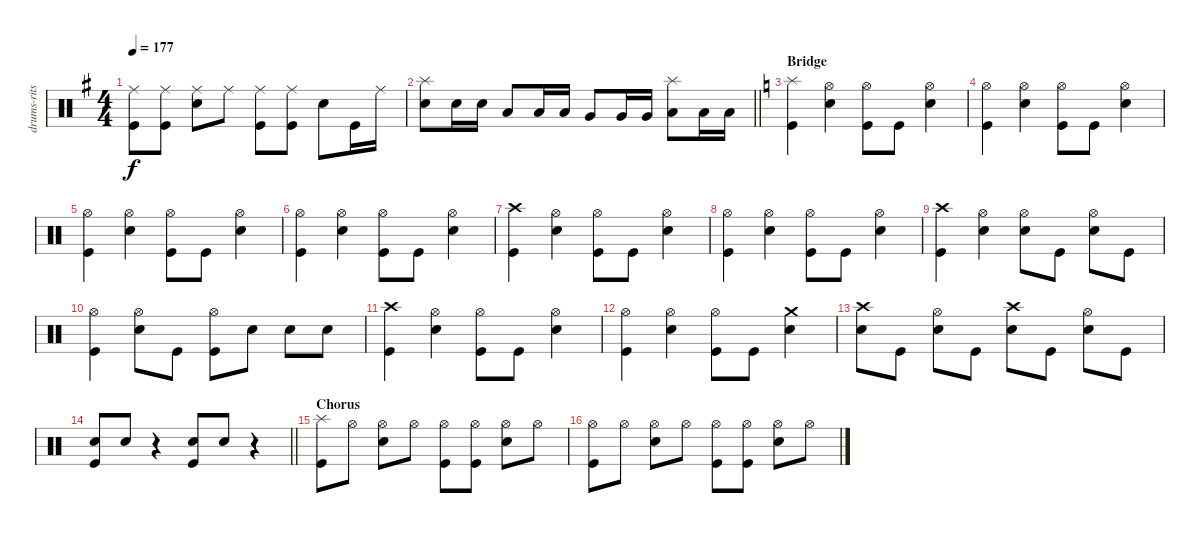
\track ("drums-ritsu takana" "drums-rits") {instrument percussion}
\staff {score}
\articulation defaults
\ts (4 4)
\tempo 177
\clef neutral
\ks eminor
("Kick (hit)" "Ride (middle)").8{dy f} ("Ride (middle)" "Kick (hit)").8 ("Ride (middle)" "Snare (hit) 2").8 "Ride (middle)".8 ("Kick (hit)" "Ride (middle)").8 ("Ride (middle)" "Kick (hit)").8 "Snare (hit) 2".8 "Kick (hit)".16 "Ride (middle)".16 |
\barLineRight lightlight
("Snare (hit) 2" "Splash (hit)").8 "Snare (hit) 2".16 "Snare (hit) 2".16 "Low Tom (hit)".8 "Low Tom (hit)".16 "Low Tom (hit)".16 "Very Low Tom (hit)".8 "Very Low Tom (hit)".16 "Very Low Tom (hit)".16 ("Splash (hit)" "Low Floor Tom (hit)").8 "Low Floor Tom (hit)".16 "Low Floor Tom (hit)".16 |
\section ("" "Bridge")
\ks c
("Kick (hit)" "Splash (hit)").4 ("Hi-Hat (open)" "Snare (hit) 2").4 ("Hi-Hat (open)" "Kick (hit)").8 "Kick (hit)".8 ("Hi-Hat (open)" "Snare (hit) 2").4 |
("Hi-Hat (open)" "Kick (hit)").4 ("Hi-Hat (open)" "Snare (hit) 2").4 ("Hi-Hat (open)" "Kick (hit)").8 "Kick (hit)".8 ("Hi-Hat (open)" "Snare (hit) 2").4 |
("Hi-Hat (open)" "Kick (hit)").4 ("Hi-Hat (open)" "Snare (hit) 2").4 ("Hi-Hat (open)" "Kick (hit)").8 "Kick (hit)".8 ("Hi-Hat (open)" "Snare (hit) 2").4 |
("Hi-Hat (open)" "Kick (hit)").4 ("Hi-Hat (open)" "Snare (hit) 2").4 ("Hi-Hat (open)" "Kick (hit)").8 "Kick (hit)".8 ("Hi-Hat (open)" "Snare (hit) 2").4 |
("Crash high (hit)" "Kick (hit)").4 ("Hi-Hat (open)" "Snare (hit) 2").4 ("Hi-Hat (open)" "Kick (hit)").8 "Kick (hit)".8 ("Hi-Hat (open)" "Snare (hit) 2").4 |
("Hi-Hat (open)" "Kick (hit)").4 ("Hi-Hat (open)" "Snare (hit) 2").4 ("Hi-Hat (open)" "Kick (hit)").8 "Kick (hit)".8 ("Hi-Hat (open)" "Snare (hit) 2").4 |
("Crash high (hit)" "Kick (hit)").4 ("Hi-Hat (open)" "Snare (hit) 2").4 ("Hi-Hat (open)" "Snare (hit) 2").8 "Kick (hit)".8 ("Hi-Hat (open)" "Snare (hit) 2").8 "Kick (hit)".8 |
("Hi-Hat (open)" "Kick (hit)").4 ("Hi-Hat (open)" "Snare (hit) 2").8 "Kick (hit)".8 ("Hi-Hat (open)" "Kick (hit)").8 "Snare (hit) 2".8 "Snare (hit) 2".8 "Snare (hit) 2".8 |
("Crash high (hit)" "Kick (hit)").4 ("Hi-Hat (open)" "Snare (hit) 2").4 ("Hi-Hat (open)" "Kick (hit)").8 "Kick (hit)".8 ("Hi-Hat (open)" "Snare (hit) 2").4 |
("Hi-Hat (open)" "Kick (hit)").4 ("Hi-Hat (open)" "Snare (hit) 2").4 ("Hi-Hat (open)" "Kick (hit)").8 "Kick (hit)".8 ("Crash medium (hit)" "Snare (hit) 2").4 |
("Crash high (hit)" "Snare (hit) 2").8 "Kick (hit)".8 ("Hi-Hat (open)" "Snare (hit) 2").8 "Kick (hit)".8 ("Crash high (hit)" "Snare (hit) 2").8 "Kick (hit)".8 ("Hi-Hat (open)" "Snare (hit) 2").8 "Kick (hit)".8 |
\barLineRight lightlight
("Snare (hit) 2" "Kick (hit)").8 "Snare (hit) 2".8 r.4 ("Snare (hit) 2" "Kick (hit)").8 "Snare (hit) 2".8 r.4 |
\section ("" "Chorus")
("Kick (hit)" "Splash (hit)").8 "Hi-Hat (open)".8 ("Hi-Hat (open)" "Snare (hit) 2").8 "Hi-Hat (open)".8 ("Hi-Hat (open)" "Kick (hit)").8 ("Kick (hit)" "Hi-Hat (open)").8 ("Hi-Hat (open)" "Snare (hit) 2").8 "Hi-Hat (open)".8 |
("Kick (hit)" "Hi-Hat (open)").8 "Hi-Hat (open)".8 ("Hi-Hat (open)" "Snare (hit) 2").8 "Hi-Hat (open)".8 ("Hi-Hat (open)" "Kick (hit)").8 ("Kick (hit)" "Hi-Hat (open)").8 ("Hi-Hat (open)" "Snare (hit) 2").8 "Hi-Hat (open)".8
